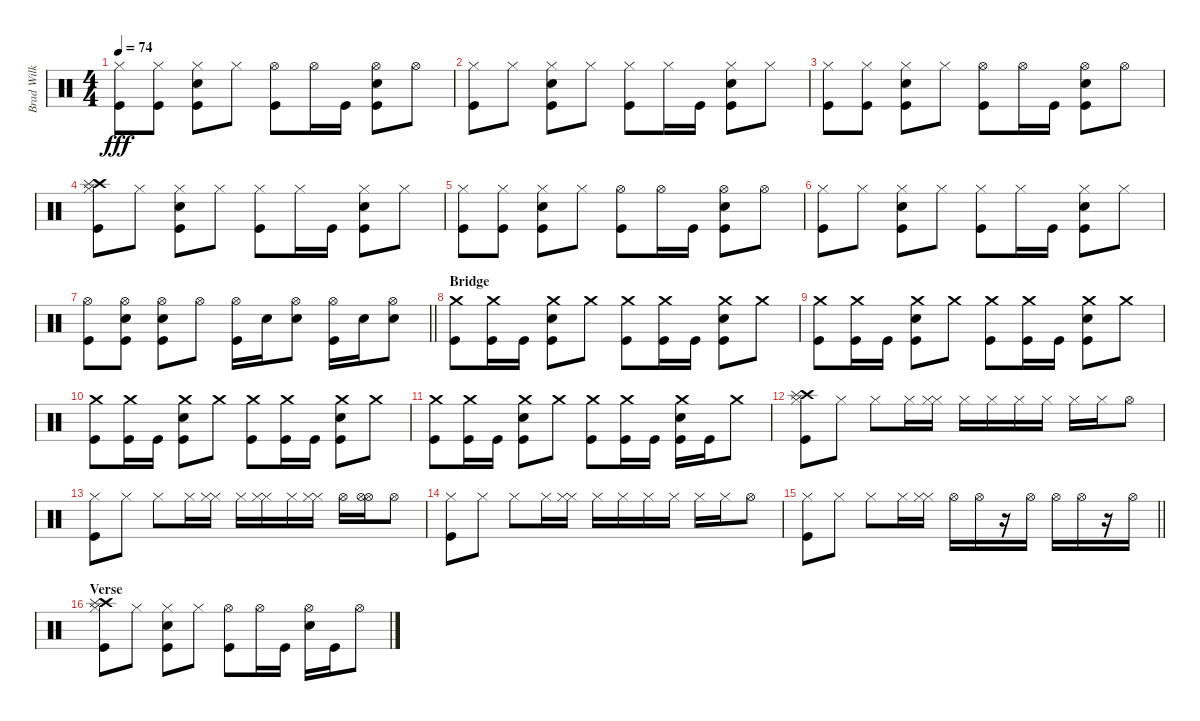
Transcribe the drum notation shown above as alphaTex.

\track ("Brad Wilk" "Brad Wilk") {instrument percussion}
\staff {score}
\articulation defaults
\ts (4 4)
\tempo 74
\clef neutral
\ks c
("Kick (hit)" "Hi-Hat (closed)").8{dy fff} ("Kick (hit)" "Hi-Hat (closed)").8 ("Kick (hit)" "Electric Snare (hit)" "Hi-Hat (closed)").8 "Hi-Hat (closed)".8 ("Kick (hit)" "Hi-Hat (open)").8 "Hi-Hat (open)".16 "Kick (hit)".16 ("Kick (hit)" "Electric Snare (hit)" "Hi-Hat (open)").8 "Hi-Hat (open)".8 |
("Kick (hit)" "Hi-Hat (closed)").8 "Hi-Hat (closed)".8 ("Kick (hit)" "Electric Snare (hit)" "Hi-Hat (closed)").8 "Hi-Hat (closed)".8 ("Kick (hit)" "Hi-Hat (closed)").8 "Hi-Hat (closed)".16 "Kick (hit)".16 ("Kick (hit)" "Electric Snare (hit)" "Hi-Hat (closed)").8 "Hi-Hat (closed)".8 |
("Kick (hit)" "Hi-Hat (closed)").8 ("Kick (hit)" "Hi-Hat (closed)").8 ("Kick (hit)" "Electric Snare (hit)" "Hi-Hat (closed)").8 "Hi-Hat (closed)".8 ("Kick (hit)" "Hi-Hat (open)").8 "Hi-Hat (open)".16 "Kick (hit)".16 ("Kick (hit)" "Electric Snare (hit)" "Hi-Hat (open)").8 "Hi-Hat (open)".8 |
("Crash high (hit)" "Splash (hit)" "Kick (hit)" "Hi-Hat (closed)").8 "Hi-Hat (closed)".8 ("Kick (hit)" "Electric Snare (hit)" "Hi-Hat (closed)").8 "Hi-Hat (closed)".8 ("Kick (hit)" "Hi-Hat (closed)").8 "Hi-Hat (closed)".16 "Kick (hit)".16 ("Kick (hit)" "Electric Snare (hit)" "Hi-Hat (closed)").8 "Hi-Hat (closed)".8 |
("Kick (hit)" "Hi-Hat (closed)").8 ("Kick (hit)" "Hi-Hat (closed)").8 ("Kick (hit)" "Electric Snare (hit)" "Hi-Hat (closed)").8 "Hi-Hat (closed)".8 ("Kick (hit)" "Hi-Hat (open)").8 "Hi-Hat (open)".16 "Kick (hit)".16 ("Kick (hit)" "Electric Snare (hit)" "Hi-Hat (open)").8 "Hi-Hat (open)".8 |
("Kick (hit)" "Hi-Hat (closed)").8 "Hi-Hat (closed)".8 ("Kick (hit)" "Electric Snare (hit)" "Hi-Hat (closed)").8 "Hi-Hat (closed)".8 ("Kick (hit)" "Hi-Hat (closed)").8 "Hi-Hat (closed)".16 "Kick (hit)".16 ("Kick (hit)" "Electric Snare (hit)" "Hi-Hat (closed)").8 "Hi-Hat (closed)".8 |
\barLineRight lightlight
("Kick (hit)" "Hi-Hat (open)").8 ("Kick (hit)" "Electric Snare (hit)" "Hi-Hat (open)").8 ("Kick (hit)" "Electric Snare (hit)" "Hi-Hat (open)").8 "Hi-Hat (open)".8 ("Kick (hit)" "Hi-Hat (open)").16 "Electric Snare (hit)".16 ("Electric Snare (hit)" "Hi-Hat (open)").8 ("Kick (hit)" "Hi-Hat (open)").16 "Electric Snare (hit)".16 ("Electric Snare (hit)" "Hi-Hat (open)").8 |
\section ("" "Bridge")
("Crash medium (hit)" "Kick (hit)").8 ("Crash medium (hit)" "Kick (hit)").16 "Kick (hit)".16 ("Crash medium (hit)" "Kick (hit)" "Electric Snare (hit)").8 "Crash medium (hit)".8 ("Crash medium (hit)" "Kick (hit)").8 ("Crash medium (hit)" "Kick (hit)").16 "Kick (hit)".16 ("Crash medium (hit)" "Kick (hit)" "Electric Snare (hit)").8 "Crash medium (hit)".8 |
("Crash medium (hit)" "Kick (hit)").8 ("Crash medium (hit)" "Kick (hit)").16 "Kick (hit)".16 ("Crash medium (hit)" "Kick (hit)" "Electric Snare (hit)").8 "Crash medium (hit)".8 ("Crash medium (hit)" "Kick (hit)").8 ("Crash medium (hit)" "Kick (hit)").16 "Kick (hit)".16 ("Crash medium (hit)" "Kick (hit)" "Electric Snare (hit)").8 "Crash medium (hit)".8 |
("Crash medium (hit)" "Kick (hit)").8 ("Crash medium (hit)" "Kick (hit)").16 "Kick (hit)".16 ("Crash medium (hit)" "Kick (hit)" "Electric Snare (hit)").8 "Crash medium (hit)".8 ("Crash medium (hit)" "Kick (hit)").8 ("Crash medium (hit)" "Kick (hit)").16 "Kick (hit)".16 ("Crash medium (hit)" "Kick (hit)" "Electric Snare (hit)").8 "Crash medium (hit)".8 |
("Crash medium (hit)" "Kick (hit)").8 ("Crash medium (hit)" "Kick (hit)").16 "Kick (hit)".16 ("Crash medium (hit)" "Kick (hit)" "Electric Snare (hit)").8 "Crash medium (hit)".8 ("Crash medium (hit)" "Kick (hit)").8 ("Crash medium (hit)" "Kick (hit)").16 "Kick (hit)".16 ("Crash medium (hit)" "Kick (hit)" "Electric Snare (hit)").16 "Kick (hit)".16 "Crash medium (hit)".8 |
("Crash high (hit)" "Splash (hit)" "Kick (hit)" "Hi-Hat (closed)").8 "Hi-Hat (closed)".8 "Hi-Hat (closed)".8 "Hi-Hat (closed)".16 ("Hi-Hat (closed)" "Hi-Hat (closed)").16 "Hi-Hat (closed)".16 "Hi-Hat (closed)".16 "Hi-Hat (closed)".16 "Hi-Hat (closed)".16 "Hi-Hat (closed)".16 "Hi-Hat (closed)".16 "Hi-Hat (open)".8 |
("Kick (hit)" "Hi-Hat (closed)").8 "Hi-Hat (closed)".8 "Hi-Hat (closed)".8 "Hi-Hat (closed)".16 ("Hi-Hat (closed)" "Hi-Hat (closed)").16 "Hi-Hat (closed)".16 ("Hi-Hat (closed)" "Hi-Hat (closed)").16 "Hi-Hat (closed)".16 ("Hi-Hat (closed)" "Hi-Hat (closed)").16 "Hi-Hat (open)".16 ("Hi-Hat (open)" "Hi-Hat (open)").16 "Hi-Hat (open)".8 |
("Kick (hit)" "Hi-Hat (closed)").8 "Hi-Hat (closed)".8 "Hi-Hat (closed)".8 "Hi-Hat (closed)".16 ("Hi-Hat (closed)" "Hi-Hat (closed)").16 "Hi-Hat (closed)".16 "Hi-Hat (closed)".16 "Hi-Hat (closed)".16 "Hi-Hat (closed)".16 "Hi-Hat (closed)".16 "Hi-Hat (closed)".16 "Hi-Hat (open)".8 |
\barLineRight lightlight
("Kick (hit)" "Hi-Hat (closed)").8 "Hi-Hat (closed)".8 "Hi-Hat (closed)".8 "Hi-Hat (closed)".16 ("Hi-Hat (closed)" "Hi-Hat (closed)").16 "Hi-Hat (open)".16 "Hi-Hat (open)".16 r.16 "Hi-Hat (open)".16 "Hi-Hat (open)".16 "Hi-Hat (open)".16 r.16 "Hi-Hat (open)".16 |
\section ("" "Verse")
("Crash high (hit)" "Splash (hit)" "Kick (hit)" "Hi-Hat (closed)").8 "Hi-Hat (closed)".8 ("Kick (hit)" "Electric Snare (hit)" "Hi-Hat (closed)").8 "Hi-Hat (closed)".8 ("Kick (hit)" "Hi-Hat (open)").8 "Hi-Hat (open)".16 "Kick (hit)".16 ("Electric Snare (hit)" "Hi-Hat (open)").16 "Kick (hit)".16 "Hi-Hat (open)".8
